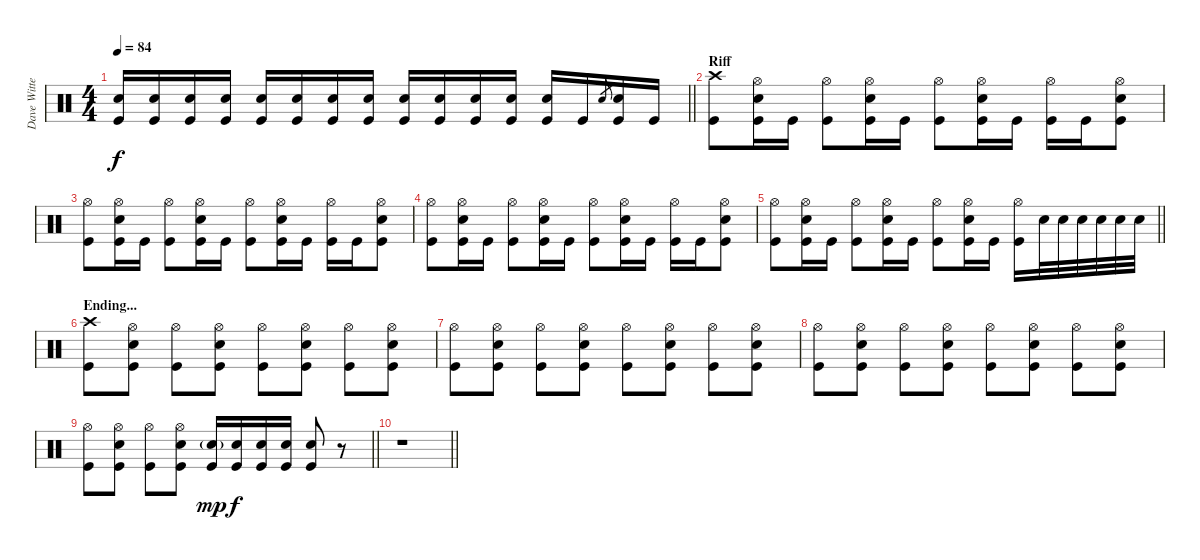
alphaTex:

\track ("Dave Witte" "Dave Witte") {instrument percussion}
\staff {score}
\articulation defaults
\ts (4 4)
\tempo 84
\clef neutral
\barLineRight lightlight
\ks c
("Kick (hit)" "Electric Snare (hit)").16{dy f} ("Kick (hit)" "Electric Snare (hit)").16 ("Kick (hit)" "Electric Snare (hit)").16 ("Kick (hit)" "Electric Snare (hit)").16 ("Kick (hit)" "Electric Snare (hit)").16 ("Kick (hit)" "Electric Snare (hit)").16 ("Kick (hit)" "Electric Snare (hit)").16 ("Kick (hit)" "Electric Snare (hit)").16 ("Kick (hit)" "Electric Snare (hit)").16 ("Kick (hit)" "Electric Snare (hit)").16 ("Kick (hit)" "Electric Snare (hit)").16 ("Kick (hit)" "Electric Snare (hit)").16 ("Kick (hit)" "Electric Snare (hit)").16 "Kick (hit)".16 "Electric Snare (hit)".8{gr} ("Kick (hit)" "Electric Snare (hit)").16 "Kick (hit)".16 |
\section ("" "Riff")
("Kick (hit)" "Crash high (hit)").8 ("Kick (hit)" "Electric Snare (hit)" "Hi-Hat (open)").16 "Kick (hit)".16 ("Kick (hit)" "Hi-Hat (open)").8 ("Kick (hit)" "Electric Snare (hit)" "Hi-Hat (open)").16 "Kick (hit)".16 ("Kick (hit)" "Hi-Hat (open)").8 ("Kick (hit)" "Electric Snare (hit)" "Hi-Hat (open)").16 "Kick (hit)".16 ("Kick (hit)" "Hi-Hat (open)").16 "Kick (hit)".16 ("Kick (hit)" "Electric Snare (hit)" "Hi-Hat (open)").8 |
("Kick (hit)" "Hi-Hat (open)").8 ("Kick (hit)" "Electric Snare (hit)" "Hi-Hat (open)").16 "Kick (hit)".16 ("Kick (hit)" "Hi-Hat (open)").8 ("Kick (hit)" "Electric Snare (hit)" "Hi-Hat (open)").16 "Kick (hit)".16 ("Kick (hit)" "Hi-Hat (open)").8 ("Kick (hit)" "Electric Snare (hit)" "Hi-Hat (open)").16 "Kick (hit)".16 ("Kick (hit)" "Hi-Hat (open)").16 "Kick (hit)".16 ("Kick (hit)" "Electric Snare (hit)" "Hi-Hat (open)").8 |
("Kick (hit)" "Hi-Hat (open)").8 ("Kick (hit)" "Electric Snare (hit)" "Hi-Hat (open)").16 "Kick (hit)".16 ("Kick (hit)" "Hi-Hat (open)").8 ("Kick (hit)" "Electric Snare (hit)" "Hi-Hat (open)").16 "Kick (hit)".16 ("Kick (hit)" "Hi-Hat (open)").8 ("Kick (hit)" "Electric Snare (hit)" "Hi-Hat (open)").16 "Kick (hit)".16 ("Kick (hit)" "Hi-Hat (open)").16 "Kick (hit)".16 ("Kick (hit)" "Electric Snare (hit)" "Hi-Hat (open)").8 |
\barLineRight lightlight
("Kick (hit)" "Hi-Hat (open)").8 ("Kick (hit)" "Electric Snare (hit)" "Hi-Hat (open)").16 "Kick (hit)".16 ("Kick (hit)" "Hi-Hat (open)").8 ("Kick (hit)" "Electric Snare (hit)" "Hi-Hat (open)").16 "Kick (hit)".16 ("Kick (hit)" "Hi-Hat (open)").8 ("Kick (hit)" "Electric Snare (hit)" "Hi-Hat (open)").16 "Kick (hit)".16 ("Kick (hit)" "Hi-Hat (open)").16 "Electric Snare (hit)".32 "Electric Snare (hit)".32 "Electric Snare (hit)".32 "Electric Snare (hit)".32 "Electric Snare (hit)".32 "Electric Snare (hit)".32 |
\section ("" "Ending...")
("Kick (hit)" "Crash high (hit)").8 ("Kick (hit)" "Electric Snare (hit)" "Hi-Hat (open)").8 ("Kick (hit)" "Hi-Hat (open)").8 ("Kick (hit)" "Electric Snare (hit)" "Hi-Hat (open)").8 ("Kick (hit)" "Hi-Hat (open)").8 ("Kick (hit)" "Electric Snare (hit)" "Hi-Hat (open)").8 ("Kick (hit)" "Hi-Hat (open)").8 ("Kick (hit)" "Electric Snare (hit)" "Hi-Hat (open)").8 |
("Kick (hit)" "Hi-Hat (open)").8 ("Kick (hit)" "Electric Snare (hit)" "Hi-Hat (open)").8 ("Kick (hit)" "Hi-Hat (open)").8 ("Kick (hit)" "Electric Snare (hit)" "Hi-Hat (open)").8 ("Kick (hit)" "Hi-Hat (open)").8 ("Kick (hit)" "Electric Snare (hit)" "Hi-Hat (open)").8 ("Kick (hit)" "Hi-Hat (open)").8 ("Kick (hit)" "Electric Snare (hit)" "Hi-Hat (open)").8 |
("Kick (hit)" "Hi-Hat (open)").8 ("Kick (hit)" "Electric Snare (hit)" "Hi-Hat (open)").8 ("Kick (hit)" "Hi-Hat (open)").8 ("Kick (hit)" "Electric Snare (hit)" "Hi-Hat (open)").8 ("Kick (hit)" "Hi-Hat (open)").8 ("Kick (hit)" "Electric Snare (hit)" "Hi-Hat (open)").8 ("Kick (hit)" "Hi-Hat (open)").8 ("Kick (hit)" "Electric Snare (hit)" "Hi-Hat (open)").8 |
\barLineRight lightlight
("Kick (hit)" "Hi-Hat (open)").8 ("Kick (hit)" "Electric Snare (hit)" "Hi-Hat (open)").8 ("Kick (hit)" "Hi-Hat (open)").8 ("Kick (hit)" "Electric Snare (hit)" "Hi-Hat (open)").8 ("Kick (hit)" "Electric Snare (hit)"{g}).16{dy mp} ("Kick (hit)" "Electric Snare (hit)").16{dy f} ("Kick (hit)" "Electric Snare (hit)").16 ("Kick (hit)" "Electric Snare (hit)").16 ("Kick (hit)" "Electric Snare (hit)").8 r.8 |
\barLineRight lightlight
r.1
